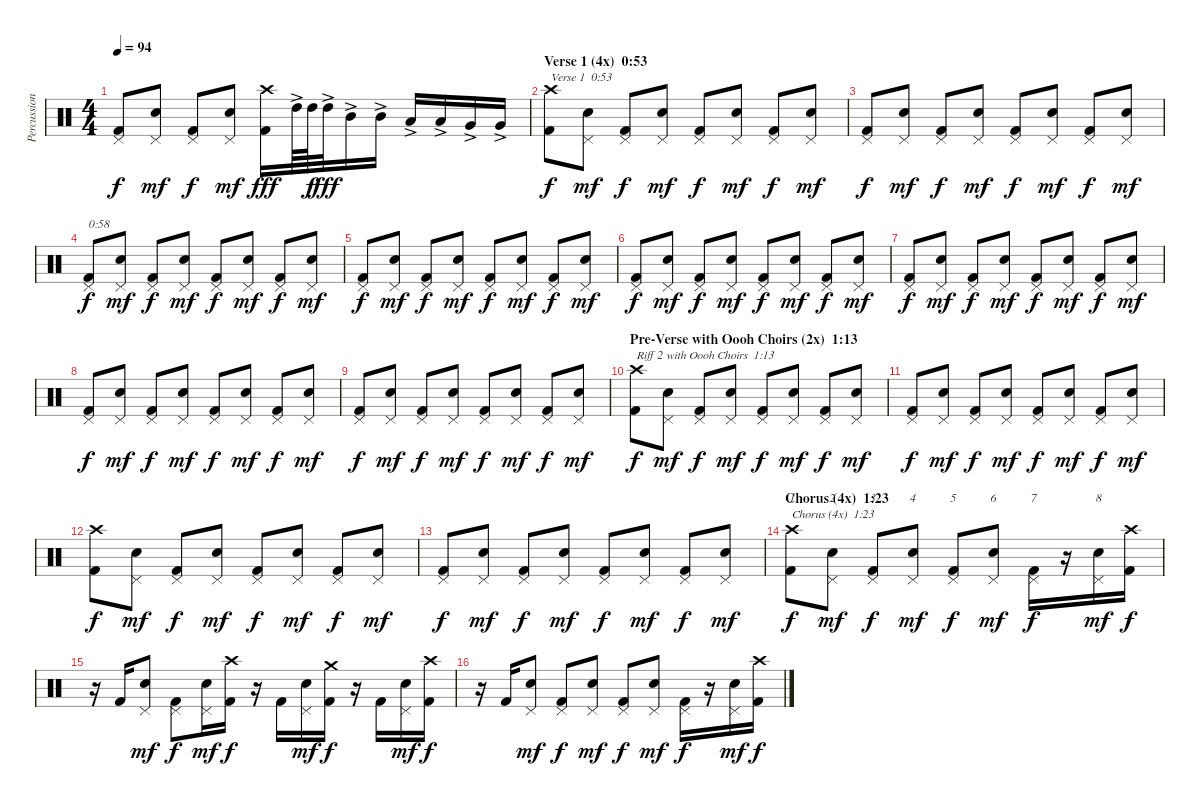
\track ("Percussion" "Percussion") {instrument percussion}
\staff {score}
\articulation defaults
\chord ("1")
\chord ("2")
\chord ("3")
\chord ("4")
\chord ("5")
\chord ("6")
\chord ("7")
\chord ("8")
\ts (4 4)
\tempo 94
\clef neutral
\ks c
("Kick (hit) 2" "Pedal Hi-Hat (hit)").8{dy f} ("Snare (hit) 2" "Pedal Hi-Hat (hit)").8{dy mf} ("Kick (hit) 2" "Pedal Hi-Hat (hit)").8{dy f} ("Snare (hit) 2" "Pedal Hi-Hat (hit)").8{dy mf} ("Kick (hit) 2" "Crash high (hit)").16{dy fff} "High Tom (hit)"{ac}.64 "High Tom (hit)".64{dy f} "High Tom (hit)"{ac}.32{dy fff} "Mid Tom (hit)"{ac}.16 "Mid Tom (hit)"{ac}.16 "Low Tom (hit)"{ac}.16 "Low Tom (hit)"{ac}.16 "Very Low Tom (hit)"{ac}.16 "Very Low Tom (hit)"{ac}.16 |
\section ("" "Verse 1 (4x)  0:53")
("Kick (hit) 2" "Crash high (hit)").8{txt "Verse 1  0:53" dy f} ("Snare (hit) 2" "Pedal Hi-Hat (hit)").8{dy mf} ("Kick (hit) 2" "Pedal Hi-Hat (hit)").8{dy f} ("Snare (hit) 2" "Pedal Hi-Hat (hit)").8{dy mf} ("Kick (hit) 2" "Pedal Hi-Hat (hit)").8{dy f} ("Snare (hit) 2" "Pedal Hi-Hat (hit)").8{dy mf} ("Kick (hit) 2" "Pedal Hi-Hat (hit)").8{dy f} ("Snare (hit) 2" "Pedal Hi-Hat (hit)").8{dy mf} |
("Kick (hit) 2" "Pedal Hi-Hat (hit)").8{dy f} ("Snare (hit) 2" "Pedal Hi-Hat (hit)").8{dy mf} ("Kick (hit) 2" "Pedal Hi-Hat (hit)").8{dy f} ("Snare (hit) 2" "Pedal Hi-Hat (hit)").8{dy mf} ("Kick (hit) 2" "Pedal Hi-Hat (hit)").8{dy f} ("Snare (hit) 2" "Pedal Hi-Hat (hit)").8{dy mf} ("Kick (hit) 2" "Pedal Hi-Hat (hit)").8{dy f} ("Snare (hit) 2" "Pedal Hi-Hat (hit)").8{dy mf} |
("Kick (hit) 2" "Pedal Hi-Hat (hit)").8{txt "0:58" dy f} ("Snare (hit) 2" "Pedal Hi-Hat (hit)").8{dy mf} ("Kick (hit) 2" "Pedal Hi-Hat (hit)").8{dy f} ("Snare (hit) 2" "Pedal Hi-Hat (hit)").8{dy mf} ("Kick (hit) 2" "Pedal Hi-Hat (hit)").8{dy f} ("Snare (hit) 2" "Pedal Hi-Hat (hit)").8{dy mf} ("Kick (hit) 2" "Pedal Hi-Hat (hit)").8{dy f} ("Snare (hit) 2" "Pedal Hi-Hat (hit)").8{dy mf} |
("Kick (hit) 2" "Pedal Hi-Hat (hit)").8{dy f} ("Snare (hit) 2" "Pedal Hi-Hat (hit)").8{dy mf} ("Kick (hit) 2" "Pedal Hi-Hat (hit)").8{dy f} ("Snare (hit) 2" "Pedal Hi-Hat (hit)").8{dy mf} ("Kick (hit) 2" "Pedal Hi-Hat (hit)").8{dy f} ("Snare (hit) 2" "Pedal Hi-Hat (hit)").8{dy mf} ("Kick (hit) 2" "Pedal Hi-Hat (hit)").8{dy f} ("Snare (hit) 2" "Pedal Hi-Hat (hit)").8{dy mf} |
("Kick (hit) 2" "Pedal Hi-Hat (hit)").8{dy f} ("Snare (hit) 2" "Pedal Hi-Hat (hit)").8{dy mf} ("Kick (hit) 2" "Pedal Hi-Hat (hit)").8{dy f} ("Snare (hit) 2" "Pedal Hi-Hat (hit)").8{dy mf} ("Kick (hit) 2" "Pedal Hi-Hat (hit)").8{dy f} ("Snare (hit) 2" "Pedal Hi-Hat (hit)").8{dy mf} ("Kick (hit) 2" "Pedal Hi-Hat (hit)").8{dy f} ("Snare (hit) 2" "Pedal Hi-Hat (hit)").8{dy mf} |
("Kick (hit) 2" "Pedal Hi-Hat (hit)").8{dy f} ("Snare (hit) 2" "Pedal Hi-Hat (hit)").8{dy mf} ("Kick (hit) 2" "Pedal Hi-Hat (hit)").8{dy f} ("Snare (hit) 2" "Pedal Hi-Hat (hit)").8{dy mf} ("Kick (hit) 2" "Pedal Hi-Hat (hit)").8{dy f} ("Snare (hit) 2" "Pedal Hi-Hat (hit)").8{dy mf} ("Kick (hit) 2" "Pedal Hi-Hat (hit)").8{dy f} ("Snare (hit) 2" "Pedal Hi-Hat (hit)").8{dy mf} |
("Kick (hit) 2" "Pedal Hi-Hat (hit)").8{dy f} ("Snare (hit) 2" "Pedal Hi-Hat (hit)").8{dy mf} ("Kick (hit) 2" "Pedal Hi-Hat (hit)").8{dy f} ("Snare (hit) 2" "Pedal Hi-Hat (hit)").8{dy mf} ("Kick (hit) 2" "Pedal Hi-Hat (hit)").8{dy f} ("Snare (hit) 2" "Pedal Hi-Hat (hit)").8{dy mf} ("Kick (hit) 2" "Pedal Hi-Hat (hit)").8{dy f} ("Snare (hit) 2" "Pedal Hi-Hat (hit)").8{dy mf} |
("Kick (hit) 2" "Pedal Hi-Hat (hit)").8{dy f} ("Snare (hit) 2" "Pedal Hi-Hat (hit)").8{dy mf} ("Kick (hit) 2" "Pedal Hi-Hat (hit)").8{dy f} ("Snare (hit) 2" "Pedal Hi-Hat (hit)").8{dy mf} ("Kick (hit) 2" "Pedal Hi-Hat (hit)").8{dy f} ("Snare (hit) 2" "Pedal Hi-Hat (hit)").8{dy mf} ("Kick (hit) 2" "Pedal Hi-Hat (hit)").8{dy f} ("Snare (hit) 2" "Pedal Hi-Hat (hit)").8{dy mf} |
\section ("" "Pre-Verse with Oooh Choirs (2x)  1:13")
("Kick (hit) 2" "Crash high (hit)").8{txt "Riff 2 with Oooh Choirs  1:13" dy f} ("Snare (hit) 2" "Pedal Hi-Hat (hit)").8{dy mf} ("Kick (hit) 2" "Pedal Hi-Hat (hit)").8{dy f} ("Snare (hit) 2" "Pedal Hi-Hat (hit)").8{dy mf} ("Kick (hit) 2" "Pedal Hi-Hat (hit)").8{dy f} ("Snare (hit) 2" "Pedal Hi-Hat (hit)").8{dy mf} ("Kick (hit) 2" "Pedal Hi-Hat (hit)").8{dy f} ("Snare (hit) 2" "Pedal Hi-Hat (hit)").8{dy mf} |
("Kick (hit) 2" "Pedal Hi-Hat (hit)").8{dy f} ("Snare (hit) 2" "Pedal Hi-Hat (hit)").8{dy mf} ("Kick (hit) 2" "Pedal Hi-Hat (hit)").8{dy f} ("Snare (hit) 2" "Pedal Hi-Hat (hit)").8{dy mf} ("Kick (hit) 2" "Pedal Hi-Hat (hit)").8{dy f} ("Snare (hit) 2" "Pedal Hi-Hat (hit)").8{dy mf} ("Kick (hit) 2" "Pedal Hi-Hat (hit)").8{dy f} ("Snare (hit) 2" "Pedal Hi-Hat (hit)").8{dy mf} |
("Kick (hit) 2" "Crash high (hit)").8{dy f} ("Snare (hit) 2" "Pedal Hi-Hat (hit)").8{dy mf} ("Kick (hit) 2" "Pedal Hi-Hat (hit)").8{dy f} ("Snare (hit) 2" "Pedal Hi-Hat (hit)").8{dy mf} ("Kick (hit) 2" "Pedal Hi-Hat (hit)").8{dy f} ("Snare (hit) 2" "Pedal Hi-Hat (hit)").8{dy mf} ("Kick (hit) 2" "Pedal Hi-Hat (hit)").8{dy f} ("Snare (hit) 2" "Pedal Hi-Hat (hit)").8{dy mf} |
("Kick (hit) 2" "Pedal Hi-Hat (hit)").8{dy f} ("Snare (hit) 2" "Pedal Hi-Hat (hit)").8{dy mf} ("Kick (hit) 2" "Pedal Hi-Hat (hit)").8{dy f} ("Snare (hit) 2" "Pedal Hi-Hat (hit)").8{dy mf} ("Kick (hit) 2" "Pedal Hi-Hat (hit)").8{dy f} ("Snare (hit) 2" "Pedal Hi-Hat (hit)").8{dy mf} ("Kick (hit) 2" "Pedal Hi-Hat (hit)").8{dy f} ("Snare (hit) 2" "Pedal Hi-Hat (hit)").8{dy mf} |
\section ("" "Chorus (4x)  1:23")
("Kick (hit) 2" "Crash high (hit)").8{ch "1" txt "Chorus (4x)  1:23" dy f} ("Snare (hit) 2" "Pedal Hi-Hat (hit)").8{ch "2" dy mf} ("Kick (hit) 2" "Pedal Hi-Hat (hit)").8{ch "3" dy f} ("Snare (hit) 2" "Pedal Hi-Hat (hit)").8{ch "4" dy mf} ("Kick (hit) 2" "Pedal Hi-Hat (hit)").8{ch "5" dy f} ("Snare (hit) 2" "Pedal Hi-Hat (hit)").8{ch "6" dy mf} ("Kick (hit) 2" "Pedal Hi-Hat (hit)").16{ch "7" dy f} r.16 ("Snare (hit) 2" "Pedal Hi-Hat (hit)").16{ch "8" dy mf} ("Kick (hit) 2" "Crash high (hit)").16{dy f} |
r.16 "Kick (hit) 2".16 ("Snare (hit) 2" "Pedal Hi-Hat (hit)").8{dy mf} ("Kick (hit) 2" "Pedal Hi-Hat (hit)").8{dy f} ("Snare (hit) 2" "Pedal Hi-Hat (hit)").16{dy mf} ("Kick (hit) 2" "Crash high (hit)").16{dy f} r.16 "Kick (hit) 2".16 ("Snare (hit) 2" "Pedal Hi-Hat (hit)").16{dy mf} ("Kick (hit) 2" "Crash medium (hit)").16{dy f} r.16 "Kick (hit) 2".16 ("Snare (hit) 2" "Pedal Hi-Hat (hit)").16{dy mf} ("Kick (hit) 2" "Crash high (hit)").16{dy f} |
r.16 "Kick (hit) 2".16 ("Snare (hit) 2" "Pedal Hi-Hat (hit)").8{dy mf} ("Kick (hit) 2" "Pedal Hi-Hat (hit)").8{dy f} ("Snare (hit) 2" "Pedal Hi-Hat (hit)").8{dy mf} ("Kick (hit) 2" "Pedal Hi-Hat (hit)").8{dy f} ("Snare (hit) 2" "Pedal Hi-Hat (hit)").8{dy mf} ("Kick (hit) 2" "Pedal Hi-Hat (hit)").16{dy f} r.16 ("Snare (hit) 2" "Pedal Hi-Hat (hit)").16{dy mf} ("Kick (hit) 2" "Crash high (hit)").16{dy f}
